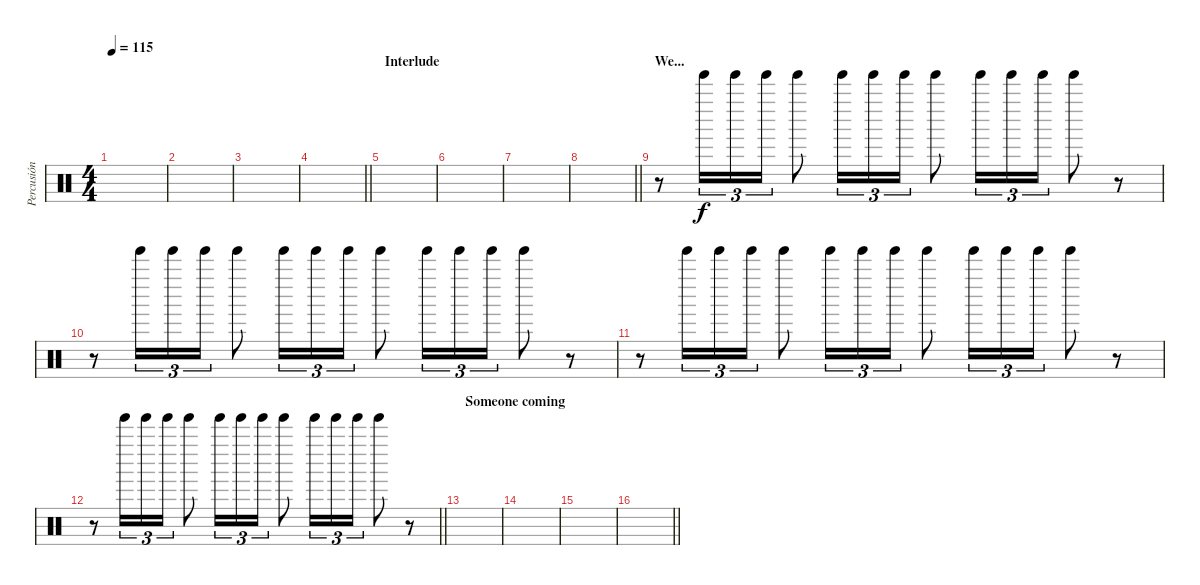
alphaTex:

\track ("Percusión" "Percusión") {instrument percussion}
\staff {score}
\articulation defaults
\ts (4 4)
\tempo 115
\clef neutral
\ks c
|
|
|
\barLineRight lightlight
|
\section ("" "Interlude")
|
|
|
\barLineRight lightlight
|
\section ("" "We...")
r.8 "Tinkle Bell (hit)".16{tu (3 2)} "Tinkle Bell (hit)".16{tu (3 2)} "Tinkle Bell (hit)".16{tu (3 2)} "Tinkle Bell (hit)".8 "Tinkle Bell (hit)".16{tu (3 2)} "Tinkle Bell (hit)".16{tu (3 2)} "Tinkle Bell (hit)".16{tu (3 2)} "Tinkle Bell (hit)".8 "Tinkle Bell (hit)".16{tu (3 2)} "Tinkle Bell (hit)".16{tu (3 2)} "Tinkle Bell (hit)".16{tu (3 2)} "Tinkle Bell (hit)".8 r.8 |
r.8 "Tinkle Bell (hit)".16{tu (3 2)} "Tinkle Bell (hit)".16{tu (3 2)} "Tinkle Bell (hit)".16{tu (3 2)} "Tinkle Bell (hit)".8 "Tinkle Bell (hit)".16{tu (3 2)} "Tinkle Bell (hit)".16{tu (3 2)} "Tinkle Bell (hit)".16{tu (3 2)} "Tinkle Bell (hit)".8 "Tinkle Bell (hit)".16{tu (3 2)} "Tinkle Bell (hit)".16{tu (3 2)} "Tinkle Bell (hit)".16{tu (3 2)} "Tinkle Bell (hit)".8 r.8 |
r.8 "Tinkle Bell (hit)".16{tu (3 2)} "Tinkle Bell (hit)".16{tu (3 2)} "Tinkle Bell (hit)".16{tu (3 2)} "Tinkle Bell (hit)".8 "Tinkle Bell (hit)".16{tu (3 2)} "Tinkle Bell (hit)".16{tu (3 2)} "Tinkle Bell (hit)".16{tu (3 2)} "Tinkle Bell (hit)".8 "Tinkle Bell (hit)".16{tu (3 2)} "Tinkle Bell (hit)".16{tu (3 2)} "Tinkle Bell (hit)".16{tu (3 2)} "Tinkle Bell (hit)".8 r.8 |
\barLineRight lightlight
r.8 "Tinkle Bell (hit)".16{tu (3 2)} "Tinkle Bell (hit)".16{tu (3 2)} "Tinkle Bell (hit)".16{tu (3 2)} "Tinkle Bell (hit)".8 "Tinkle Bell (hit)".16{tu (3 2)} "Tinkle Bell (hit)".16{tu (3 2)} "Tinkle Bell (hit)".16{tu (3 2)} "Tinkle Bell (hit)".8 "Tinkle Bell (hit)".16{tu (3 2)} "Tinkle Bell (hit)".16{tu (3 2)} "Tinkle Bell (hit)".16{tu (3 2)} "Tinkle Bell (hit)".8 r.8 |
\section ("" "Someone coming")
|
|
|
\barLineRight lightlight
